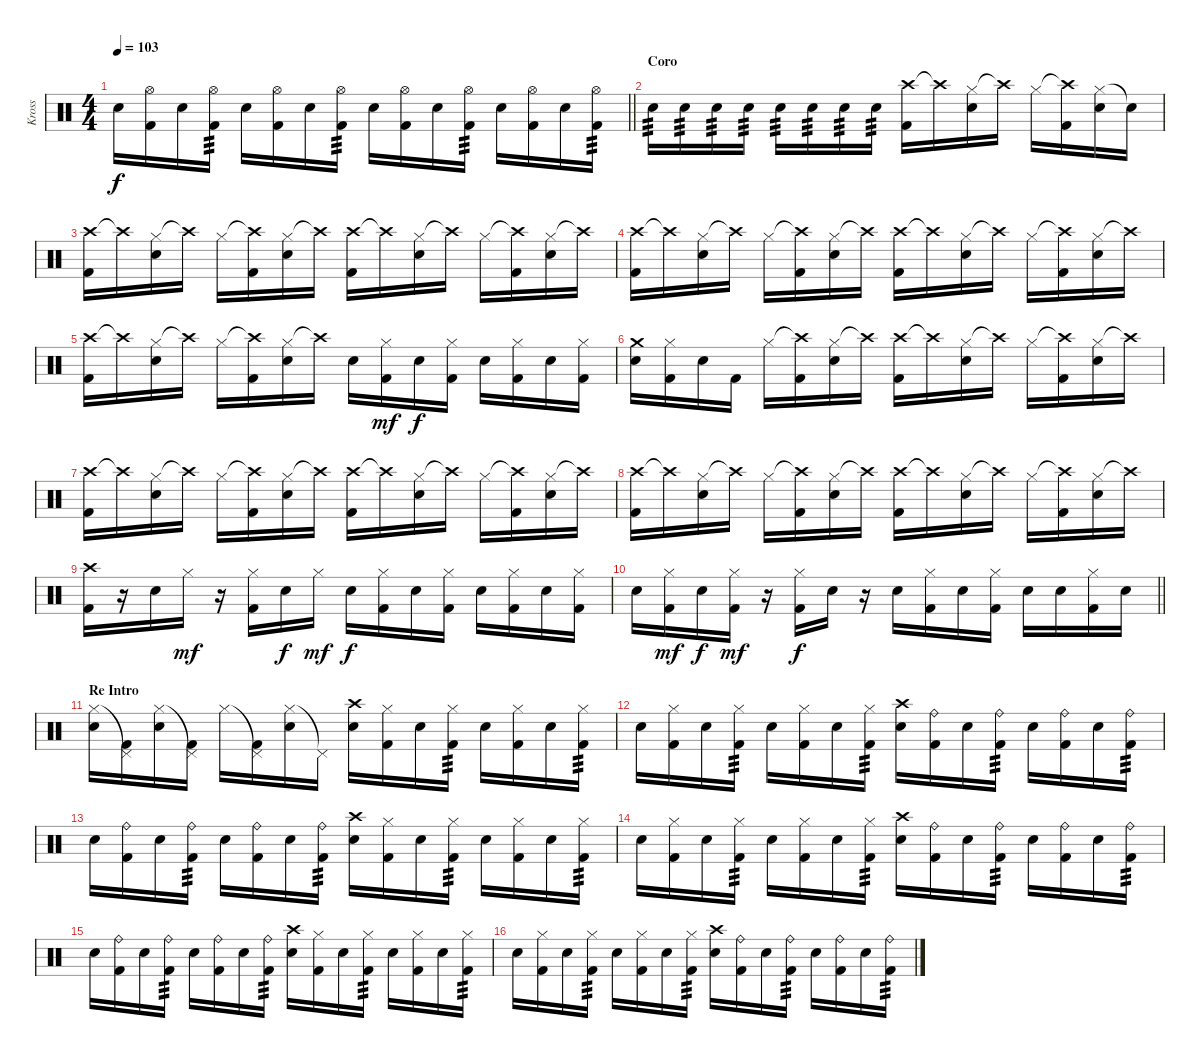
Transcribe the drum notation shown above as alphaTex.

\track ("Kross" "Kross") {instrument percussion}
\staff {score}
\articulation defaults
\ts (4 4)
\tempo 103
\clef neutral
\barLineRight lightlight
\ks c "Electric Snare (hit)".16{dy f}
("Hi-Hat (open)" "Kick (hit) 2").16 "Electric Snare (hit)".16 ("Hi-Hat (open)" "Kick (hit) 2").16{tp 3} "Electric Snare (hit)".16 ("Hi-Hat (open)" "Kick (hit) 2").16 "Electric Snare (hit)".16 ("Hi-Hat (open)" "Kick (hit) 2").16{tp 3} "Electric Snare (hit)".16 ("Hi-Hat (open)" "Kick (hit) 2").16 "Electric Snare (hit)".16 ("Hi-Hat (open)" "Kick (hit) 2").16{tp 3} "Electric Snare (hit)".16 ("Hi-Hat (open)" "Kick (hit) 2").16 "Electric Snare (hit)".16 ("Hi-Hat (open)" "Kick (hit) 2").16{tp 3} |
\section ("" "Coro")
"Electric Snare (hit)".16{tp 3} "Electric Snare (hit)".16{tp 3} "Electric Snare (hit)".16{tp 3} "Electric Snare (hit)".16{tp 3} "Electric Snare (hit)".16{tp 3} "Electric Snare (hit)".16{tp 3} "Electric Snare (hit)".16{tp 3} "Electric Snare (hit)".16{tp 3} ("Crash high (hit)" "Kick (hit) 2").16 "Crash high (hit)"{t}.16 ("Hi-Hat (closed)" "Electric Snare (hit)").16 "Crash high (hit)"{t}.16 "Hi-Hat (closed)".16 ("Crash high (hit)"{t} "Kick (hit) 2").16 ("Hi-Hat (closed)" "Electric Snare (hit)").16 "Snare (hit)"{t}.16 |
("Crash high (hit)" "Kick (hit) 2").16 "Crash high (hit)"{t}.16 ("Hi-Hat (closed)" "Electric Snare (hit)").16 "Crash high (hit)"{t}.16 "Hi-Hat (closed)".16 ("Crash high (hit)"{t} "Kick (hit) 2").16 ("Hi-Hat (closed)" "Electric Snare (hit)").16 "Crash high (hit)"{t}.16 ("Crash high (hit)" "Kick (hit) 2").16 "Crash high (hit)"{t}.16 ("Hi-Hat (closed)" "Electric Snare (hit)").16 "Crash high (hit)"{t}.16 "Hi-Hat (closed)".16 ("Crash high (hit)"{t} "Kick (hit) 2").16 ("Hi-Hat (closed)" "Electric Snare (hit)").16 "Crash high (hit)"{t}.16 |
("Crash high (hit)" "Kick (hit) 2").16 "Crash high (hit)"{t}.16 ("Hi-Hat (closed)" "Electric Snare (hit)").16 "Crash high (hit)"{t}.16 "Hi-Hat (closed)".16 ("Crash high (hit)"{t} "Kick (hit) 2").16 ("Hi-Hat (closed)" "Electric Snare (hit)").16 "Crash high (hit)"{t}.16 ("Crash high (hit)" "Kick (hit) 2").16 "Crash high (hit)"{t}.16 ("Hi-Hat (closed)" "Electric Snare (hit)").16 "Crash high (hit)"{t}.16 "Hi-Hat (closed)".16 ("Crash high (hit)"{t} "Kick (hit) 2").16 ("Hi-Hat (closed)" "Electric Snare (hit)").16 "Crash high (hit)"{t}.16 |
("Crash high (hit)" "Kick (hit) 2").16 "Crash high (hit)"{t}.16 ("Hi-Hat (closed)" "Electric Snare (hit)").16 "Crash high (hit)"{t}.16 "Hi-Hat (closed)".16 ("Crash high (hit)"{t} "Kick (hit) 2").16 ("Hi-Hat (closed)" "Electric Snare (hit)").16 "Crash high (hit)"{t}.16 "Electric Snare (hit)".16 ("Hi-Hat (closed)" "Kick (hit) 2").16{dy mf} "Electric Snare (hit)".16{dy f} ("Hi-Hat (closed)" "Kick (hit) 2").16 "Electric Snare (hit)".16 ("Hi-Hat (closed)" "Kick (hit) 2").16 "Electric Snare (hit)".16 ("Hi-Hat (closed)" "Kick (hit) 2").16 |
("Crash medium (hit)" "Electric Snare (hit)").16 ("Hi-Hat (closed)" "Kick (hit) 2").16 "Electric Snare (hit)".16 "Kick (hit) 2".16 "Hi-Hat (closed)".16 ("Crash high (hit)"{t} "Kick (hit) 2").16 ("Hi-Hat (closed)" "Electric Snare (hit)").16 "Crash high (hit)"{t}.16 ("Crash high (hit)" "Kick (hit) 2").16 "Crash high (hit)"{t}.16 ("Hi-Hat (closed)" "Electric Snare (hit)").16 "Crash high (hit)"{t}.16 "Hi-Hat (closed)".16 ("Crash high (hit)"{t} "Kick (hit) 2").16 ("Hi-Hat (closed)" "Electric Snare (hit)").16 "Crash high (hit)"{t}.16 |
("Crash high (hit)" "Kick (hit) 2").16 "Crash high (hit)"{t}.16 ("Hi-Hat (closed)" "Electric Snare (hit)").16 "Crash high (hit)"{t}.16 "Hi-Hat (closed)".16 ("Crash high (hit)"{t} "Kick (hit) 2").16 ("Hi-Hat (closed)" "Electric Snare (hit)").16 "Crash high (hit)"{t}.16 ("Crash high (hit)" "Kick (hit) 2").16 "Crash high (hit)"{t}.16 ("Hi-Hat (closed)" "Electric Snare (hit)").16 "Crash high (hit)"{t}.16 "Hi-Hat (closed)".16 ("Crash high (hit)"{t} "Kick (hit) 2").16 ("Hi-Hat (closed)" "Electric Snare (hit)").16 "Crash high (hit)"{t}.16 |
("Crash high (hit)" "Kick (hit) 2").16 "Crash high (hit)"{t}.16 ("Hi-Hat (closed)" "Electric Snare (hit)").16 "Crash high (hit)"{t}.16 "Hi-Hat (closed)".16 ("Crash high (hit)"{t} "Kick (hit) 2").16 ("Hi-Hat (closed)" "Electric Snare (hit)").16 "Crash high (hit)"{t}.16 ("Crash high (hit)" "Kick (hit) 2").16 "Crash high (hit)"{t}.16 ("Hi-Hat (closed)" "Electric Snare (hit)").16 "Crash high (hit)"{t}.16 "Hi-Hat (closed)".16 ("Crash high (hit)"{t} "Kick (hit) 2").16 ("Hi-Hat (closed)" "Electric Snare (hit)").16 "Crash high (hit)"{t}.16 |
("Crash high (hit)" "Kick (hit) 2").16 r.16 "Electric Snare (hit)".16 "Hi-Hat (closed)".16{dy mf} r.16 ("Hi-Hat (closed)" "Kick (hit) 2").16 "Electric Snare (hit)".16{dy f} "Hi-Hat (closed)".16{dy mf} "Electric Snare (hit)".16{dy f} ("Hi-Hat (closed)" "Kick (hit) 2").16 "Electric Snare (hit)".16 ("Hi-Hat (closed)" "Kick (hit) 2").16 "Electric Snare (hit)".16 ("Hi-Hat (closed)" "Kick (hit) 2").16 "Electric Snare (hit)".16 ("Hi-Hat (closed)" "Kick (hit) 2").16 |
\barLineRight lightlight "Electric Snare (hit)".16
("Hi-Hat (closed)" "Kick (hit) 2").16{dy mf} "Electric Snare (hit)".16{dy f} ("Hi-Hat (closed)" "Kick (hit) 2").16{dy mf} r.16 ("Hi-Hat (closed)" "Kick (hit) 2").16{dy f} "Electric Snare (hit)".16 r.16 "Electric Snare (hit)".16 ("Hi-Hat (closed)" "Kick (hit) 2").16 "Electric Snare (hit)".16 ("Hi-Hat (closed)" "Kick (hit) 2").16 "Electric Snare (hit)".16 "Electric Snare (hit)".16 ("Hi-Hat (closed)" "Kick (hit) 2").16 "Electric Snare (hit)".16 |
\section ("" "Re Intro")
("Hi-Hat (closed)" "Electric Snare (hit)").16 ("Pedal Hi-Hat (hit)"{t} "Kick (hit) 2").16 ("Hi-Hat (closed)" "Electric Snare (hit)").16 ("Pedal Hi-Hat (hit)"{t} "Kick (hit) 2").16 "Hi-Hat (closed)".16 ("Pedal Hi-Hat (hit)"{t} "Kick (hit) 2").16 ("Hi-Hat (closed)" "Electric Snare (hit)").16 "Pedal Hi-Hat (hit)"{t}.16 ("Crash high (hit)" "Electric Snare (hit)").16 ("Hi-Hat (closed)" "Kick (hit) 2").16 "Electric Snare (hit)".16 ("Hi-Hat (closed)" "Kick (hit) 2").16{tp 3} "Electric Snare (hit)".16 ("Hi-Hat (closed)" "Kick (hit) 2").16 "Electric Snare (hit)".16 ("Hi-Hat (closed)" "Kick (hit) 2").16{tp 3} |
"Electric Snare (hit)".16 ("Hi-Hat (closed)" "Kick (hit) 2").16 "Electric Snare (hit)".16 ("Hi-Hat (closed)" "Kick (hit) 2").16{tp 3} "Electric Snare (hit)".16 ("Hi-Hat (closed)" "Kick (hit) 2").16 "Electric Snare (hit)".16 ("Hi-Hat (closed)" "Kick (hit) 2").16{tp 3} ("Crash high (hit)" "Electric Snare (hit)").16 ("Ride (bell)" "Kick (hit) 2").16 "Electric Snare (hit)".16 ("Ride (bell)" "Kick (hit) 2").16{tp 3} "Electric Snare (hit)".16 ("Ride (bell)" "Kick (hit) 2").16 "Electric Snare (hit)".16 ("Ride (bell)" "Kick (hit) 2").16{tp 3} |
"Electric Snare (hit)".16 ("Ride (bell)" "Kick (hit) 2").16 "Electric Snare (hit)".16 ("Ride (bell)" "Kick (hit) 2").16{tp 3} "Electric Snare (hit)".16 ("Ride (bell)" "Kick (hit) 2").16 "Electric Snare (hit)".16 ("Ride (bell)" "Kick (hit) 2").16{tp 3} ("Crash high (hit)" "Electric Snare (hit)").16 ("Hi-Hat (closed)" "Kick (hit) 2").16 "Electric Snare (hit)".16 ("Hi-Hat (closed)" "Kick (hit) 2").16{tp 3} "Electric Snare (hit)".16 ("Hi-Hat (closed)" "Kick (hit) 2").16 "Electric Snare (hit)".16 ("Hi-Hat (closed)" "Kick (hit) 2").16{tp 3} |
"Electric Snare (hit)".16 ("Hi-Hat (closed)" "Kick (hit) 2").16 "Electric Snare (hit)".16 ("Hi-Hat (closed)" "Kick (hit) 2").16{tp 3} "Electric Snare (hit)".16 ("Hi-Hat (closed)" "Kick (hit) 2").16 "Electric Snare (hit)".16 ("Hi-Hat (closed)" "Kick (hit) 2").16{tp 3} ("Crash high (hit)" "Electric Snare (hit)").16 ("Ride (bell)" "Kick (hit) 2").16 "Electric Snare (hit)".16 ("Ride (bell)" "Kick (hit) 2").16{tp 3} "Electric Snare (hit)".16 ("Ride (bell)" "Kick (hit) 2").16 "Electric Snare (hit)".16 ("Ride (bell)" "Kick (hit) 2").16{tp 3} |
"Electric Snare (hit)".16 ("Ride (bell)" "Kick (hit) 2").16 "Electric Snare (hit)".16 ("Ride (bell)" "Kick (hit) 2").16{tp 3} "Electric Snare (hit)".16 ("Ride (bell)" "Kick (hit) 2").16 "Electric Snare (hit)".16 ("Ride (bell)" "Kick (hit) 2").16{tp 3} ("Crash high (hit)" "Electric Snare (hit)").16 ("Hi-Hat (closed)" "Kick (hit) 2").16 "Electric Snare (hit)".16 ("Hi-Hat (closed)" "Kick (hit) 2").16{tp 3} "Electric Snare (hit)".16 ("Hi-Hat (closed)" "Kick (hit) 2").16 "Electric Snare (hit)".16 ("Hi-Hat (closed)" "Kick (hit) 2").16{tp 3} |
"Electric Snare (hit)".16 ("Hi-Hat (closed)" "Kick (hit) 2").16 "Electric Snare (hit)".16 ("Hi-Hat (closed)" "Kick (hit) 2").16{tp 3} "Electric Snare (hit)".16 ("Hi-Hat (closed)" "Kick (hit) 2").16 "Electric Snare (hit)".16 ("Hi-Hat (closed)" "Kick (hit) 2").16{tp 3} ("Crash high (hit)" "Electric Snare (hit)").16 ("Ride (bell)" "Kick (hit) 2").16 "Electric Snare (hit)".16 ("Ride (bell)" "Kick (hit) 2").16{tp 3} "Electric Snare (hit)".16 ("Ride (bell)" "Kick (hit) 2").16 "Electric Snare (hit)".16 ("Ride (bell)" "Kick (hit) 2").16{tp 3}
